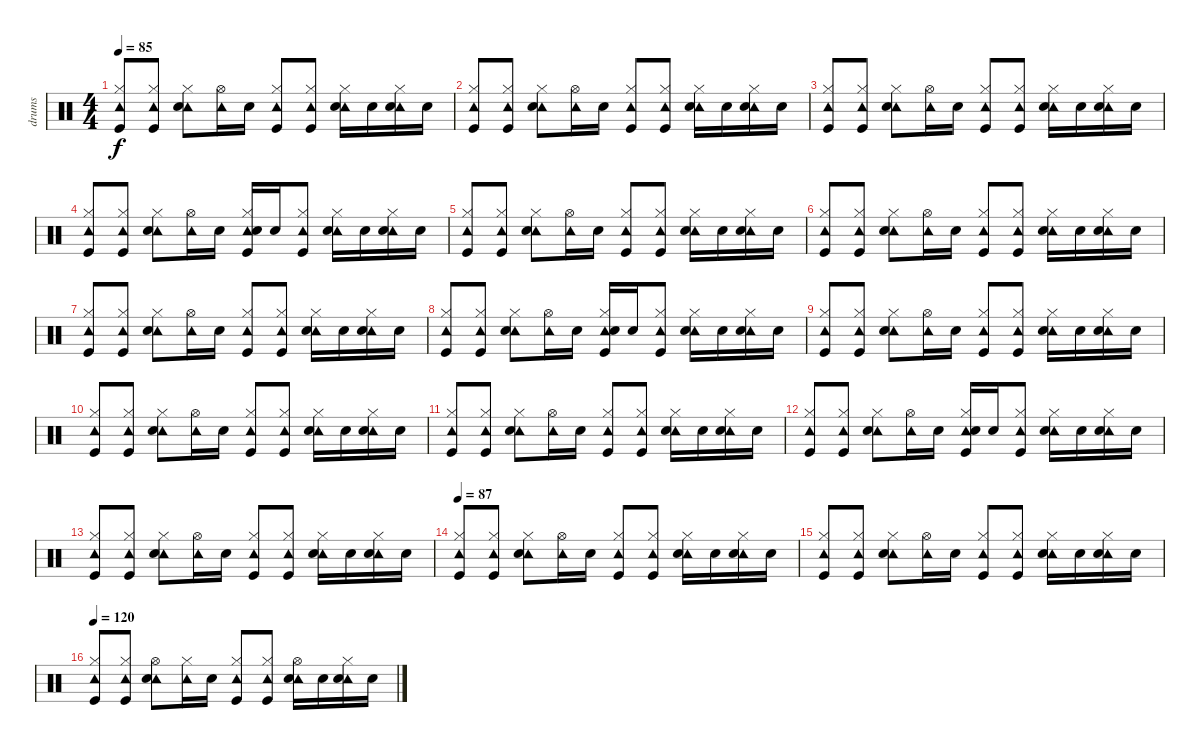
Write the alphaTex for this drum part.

\track ("drums" "drums") {instrument percussion}
\staff {score}
\articulation defaults
\ts (4 4)
\tempo 85
\clef neutral
\ks c
("Tambourine (hit)" "Hi-Hat (closed)" "Kick (hit)").8{dy f} ("Tambourine (hit)" "Hi-Hat (closed)" "Kick (hit)").8 ("Tambourine (hit)" "Hi-Hat (closed)" "Electric Snare (hit)").8 ("Tambourine (hit)" "Hi-Hat (open)").16 "Electric Snare (hit)".16 ("Tambourine (hit)" "Hi-Hat (closed)" "Kick (hit)").8 ("Tambourine (hit)" "Hi-Hat (closed)" "Kick (hit)").8 ("Tambourine (hit)" "Hi-Hat (closed)" "Electric Snare (hit)").16 "Electric Snare (hit)".16 ("Tambourine (hit)" "Hi-Hat (closed)" "Electric Snare (hit)").16 "Electric Snare (hit)".16 |
("Tambourine (hit)" "Hi-Hat (closed)" "Kick (hit)").8 ("Tambourine (hit)" "Hi-Hat (closed)" "Kick (hit)").8 ("Tambourine (hit)" "Hi-Hat (closed)" "Electric Snare (hit)").8 ("Tambourine (hit)" "Hi-Hat (open)").16 "Electric Snare (hit)".16 ("Tambourine (hit)" "Hi-Hat (closed)" "Kick (hit)").8 ("Tambourine (hit)" "Hi-Hat (closed)" "Kick (hit)").8 ("Tambourine (hit)" "Hi-Hat (closed)" "Electric Snare (hit)").16 "Electric Snare (hit)".16 ("Tambourine (hit)" "Hi-Hat (closed)" "Electric Snare (hit)").16 "Electric Snare (hit)".16 |
("Tambourine (hit)" "Hi-Hat (closed)" "Kick (hit)").8 ("Tambourine (hit)" "Hi-Hat (closed)" "Kick (hit)").8 ("Tambourine (hit)" "Hi-Hat (closed)" "Electric Snare (hit)").8 ("Tambourine (hit)" "Hi-Hat (open)").16 "Electric Snare (hit)".16 ("Tambourine (hit)" "Hi-Hat (closed)" "Kick (hit)").8 ("Tambourine (hit)" "Hi-Hat (closed)" "Kick (hit)").8 ("Tambourine (hit)" "Hi-Hat (closed)" "Electric Snare (hit)").16 "Electric Snare (hit)".16 ("Tambourine (hit)" "Hi-Hat (closed)" "Electric Snare (hit)").16 "Electric Snare (hit)".16 |
("Tambourine (hit)" "Hi-Hat (closed)" "Kick (hit)").8 ("Tambourine (hit)" "Hi-Hat (closed)" "Kick (hit)").8 ("Tambourine (hit)" "Hi-Hat (closed)" "Electric Snare (hit)").8 ("Tambourine (hit)" "Hi-Hat (open)").16 "Electric Snare (hit)".16 ("Tambourine (hit)" "Hi-Hat (closed)" "Electric Snare (hit)" "Kick (hit)").16 "Electric Snare (hit)".16 ("Tambourine (hit)" "Hi-Hat (closed)" "Kick (hit)").8 ("Tambourine (hit)" "Hi-Hat (closed)" "Electric Snare (hit)").16 "Electric Snare (hit)".16 ("Tambourine (hit)" "Hi-Hat (closed)" "Electric Snare (hit)").16 "Electric Snare (hit)".16 |
("Tambourine (hit)" "Hi-Hat (closed)" "Kick (hit)").8 ("Tambourine (hit)" "Hi-Hat (closed)" "Kick (hit)").8 ("Tambourine (hit)" "Hi-Hat (closed)" "Electric Snare (hit)").8 ("Tambourine (hit)" "Hi-Hat (open)").16 "Electric Snare (hit)".16 ("Tambourine (hit)" "Hi-Hat (closed)" "Kick (hit)").8 ("Tambourine (hit)" "Hi-Hat (closed)" "Kick (hit)").8 ("Tambourine (hit)" "Hi-Hat (closed)" "Electric Snare (hit)").16 "Electric Snare (hit)".16 ("Tambourine (hit)" "Hi-Hat (closed)" "Electric Snare (hit)").16 "Electric Snare (hit)".16 |
("Tambourine (hit)" "Hi-Hat (closed)" "Kick (hit)").8 ("Tambourine (hit)" "Hi-Hat (closed)" "Kick (hit)").8 ("Tambourine (hit)" "Hi-Hat (closed)" "Electric Snare (hit)").8 ("Tambourine (hit)" "Hi-Hat (open)").16 "Electric Snare (hit)".16 ("Tambourine (hit)" "Hi-Hat (closed)" "Kick (hit)").8 ("Tambourine (hit)" "Hi-Hat (closed)" "Kick (hit)").8 ("Tambourine (hit)" "Hi-Hat (closed)" "Electric Snare (hit)").16 "Electric Snare (hit)".16 ("Tambourine (hit)" "Hi-Hat (closed)" "Electric Snare (hit)").16 "Electric Snare (hit)".16 |
("Tambourine (hit)" "Hi-Hat (closed)" "Kick (hit)").8 ("Tambourine (hit)" "Hi-Hat (closed)" "Kick (hit)").8 ("Tambourine (hit)" "Hi-Hat (closed)" "Electric Snare (hit)").8 ("Tambourine (hit)" "Hi-Hat (open)").16 "Electric Snare (hit)".16 ("Tambourine (hit)" "Hi-Hat (closed)" "Kick (hit)").8 ("Tambourine (hit)" "Hi-Hat (closed)" "Kick (hit)").8 ("Tambourine (hit)" "Hi-Hat (closed)" "Electric Snare (hit)").16 "Electric Snare (hit)".16 ("Tambourine (hit)" "Hi-Hat (closed)" "Electric Snare (hit)").16 "Electric Snare (hit)".16 |
("Tambourine (hit)" "Hi-Hat (closed)" "Kick (hit)").8 ("Tambourine (hit)" "Hi-Hat (closed)" "Kick (hit)").8 ("Tambourine (hit)" "Hi-Hat (closed)" "Electric Snare (hit)").8 ("Tambourine (hit)" "Hi-Hat (open)").16 "Electric Snare (hit)".16 ("Tambourine (hit)" "Hi-Hat (closed)" "Electric Snare (hit)" "Kick (hit)").16 "Electric Snare (hit)".16 ("Tambourine (hit)" "Hi-Hat (closed)" "Kick (hit)").8 ("Tambourine (hit)" "Hi-Hat (closed)" "Electric Snare (hit)").16 "Electric Snare (hit)".16 ("Tambourine (hit)" "Hi-Hat (closed)" "Electric Snare (hit)").16 "Electric Snare (hit)".16 |
("Tambourine (hit)" "Hi-Hat (closed)" "Kick (hit)").8 ("Tambourine (hit)" "Hi-Hat (closed)" "Kick (hit)").8 ("Tambourine (hit)" "Hi-Hat (closed)" "Electric Snare (hit)").8 ("Tambourine (hit)" "Hi-Hat (open)").16 "Electric Snare (hit)".16 ("Tambourine (hit)" "Hi-Hat (closed)" "Kick (hit)").8 ("Tambourine (hit)" "Hi-Hat (closed)" "Kick (hit)").8 ("Tambourine (hit)" "Hi-Hat (closed)" "Electric Snare (hit)").16 "Electric Snare (hit)".16 ("Tambourine (hit)" "Hi-Hat (closed)" "Electric Snare (hit)").16 "Electric Snare (hit)".16 |
("Tambourine (hit)" "Hi-Hat (closed)" "Kick (hit)").8 ("Tambourine (hit)" "Hi-Hat (closed)" "Kick (hit)").8 ("Tambourine (hit)" "Hi-Hat (closed)" "Electric Snare (hit)").8 ("Tambourine (hit)" "Hi-Hat (open)").16 "Electric Snare (hit)".16 ("Tambourine (hit)" "Hi-Hat (closed)" "Kick (hit)").8 ("Tambourine (hit)" "Hi-Hat (closed)" "Kick (hit)").8 ("Tambourine (hit)" "Hi-Hat (closed)" "Electric Snare (hit)").16 "Electric Snare (hit)".16 ("Tambourine (hit)" "Hi-Hat (closed)" "Electric Snare (hit)").16 "Electric Snare (hit)".16 |
("Tambourine (hit)" "Hi-Hat (closed)" "Kick (hit)").8 ("Tambourine (hit)" "Hi-Hat (closed)" "Kick (hit)").8 ("Tambourine (hit)" "Hi-Hat (closed)" "Electric Snare (hit)").8 ("Tambourine (hit)" "Hi-Hat (open)").16 "Electric Snare (hit)".16 ("Tambourine (hit)" "Hi-Hat (closed)" "Kick (hit)").8 ("Tambourine (hit)" "Hi-Hat (closed)" "Kick (hit)").8 ("Tambourine (hit)" "Hi-Hat (closed)" "Electric Snare (hit)").16 "Electric Snare (hit)".16 ("Tambourine (hit)" "Hi-Hat (closed)" "Electric Snare (hit)").16 "Electric Snare (hit)".16 |
("Tambourine (hit)" "Hi-Hat (closed)" "Kick (hit)").8 ("Tambourine (hit)" "Hi-Hat (closed)" "Kick (hit)").8 ("Tambourine (hit)" "Hi-Hat (closed)" "Electric Snare (hit)").8 ("Tambourine (hit)" "Hi-Hat (open)").16 "Electric Snare (hit)".16 ("Tambourine (hit)" "Hi-Hat (closed)" "Electric Snare (hit)" "Kick (hit)").16 "Electric Snare (hit)".16 ("Tambourine (hit)" "Hi-Hat (closed)" "Kick (hit)").8 ("Tambourine (hit)" "Hi-Hat (closed)" "Electric Snare (hit)").16 "Electric Snare (hit)".16 ("Tambourine (hit)" "Hi-Hat (closed)" "Electric Snare (hit)").16 "Electric Snare (hit)".16 |
("Tambourine (hit)" "Hi-Hat (closed)" "Kick (hit)").8 ("Tambourine (hit)" "Hi-Hat (closed)" "Kick (hit)").8 ("Tambourine (hit)" "Hi-Hat (closed)" "Electric Snare (hit)").8 ("Tambourine (hit)" "Hi-Hat (open)").16 "Electric Snare (hit)".16 ("Tambourine (hit)" "Hi-Hat (closed)" "Kick (hit)").8 ("Tambourine (hit)" "Hi-Hat (closed)" "Kick (hit)").8 ("Tambourine (hit)" "Hi-Hat (closed)" "Electric Snare (hit)").16 "Electric Snare (hit)".16 ("Tambourine (hit)" "Hi-Hat (closed)" "Electric Snare (hit)").16 "Electric Snare (hit)".16 |
\tempo 87
("Tambourine (hit)" "Hi-Hat (closed)" "Kick (hit)").8 ("Tambourine (hit)" "Hi-Hat (closed)" "Kick (hit)").8 ("Tambourine (hit)" "Hi-Hat (closed)" "Electric Snare (hit)").8 ("Tambourine (hit)" "Hi-Hat (open)").16 "Electric Snare (hit)".16 ("Tambourine (hit)" "Hi-Hat (closed)" "Kick (hit)").8 ("Tambourine (hit)" "Hi-Hat (closed)" "Kick (hit)").8 ("Tambourine (hit)" "Hi-Hat (closed)" "Electric Snare (hit)").16 "Electric Snare (hit)".16 ("Tambourine (hit)" "Hi-Hat (closed)" "Electric Snare (hit)").16 "Electric Snare (hit)".16 |
("Tambourine (hit)" "Hi-Hat (closed)" "Kick (hit)").8 ("Tambourine (hit)" "Hi-Hat (closed)" "Kick (hit)").8 ("Tambourine (hit)" "Hi-Hat (closed)" "Electric Snare (hit)").8 ("Tambourine (hit)" "Hi-Hat (open)").16 "Electric Snare (hit)".16 ("Tambourine (hit)" "Hi-Hat (closed)" "Kick (hit)").8 ("Tambourine (hit)" "Hi-Hat (closed)" "Kick (hit)").8 ("Tambourine (hit)" "Hi-Hat (closed)" "Electric Snare (hit)").16 "Electric Snare (hit)".16 ("Tambourine (hit)" "Hi-Hat (closed)" "Electric Snare (hit)").16 "Electric Snare (hit)".16 |
\section ("" "")
\tempo 120
("Tambourine (hit)" "Hi-Hat (closed)" "Kick (hit)").8 ("Tambourine (hit)" "Hi-Hat (closed)" "Kick (hit)").8 ("Tambourine (hit)" "Hi-Hat (open)" "Electric Snare (hit)").8 ("Tambourine (hit)" "Hi-Hat (closed)").16 "Electric Snare (hit)".16 ("Tambourine (hit)" "Hi-Hat (closed)" "Kick (hit)").8 ("Tambourine (hit)" "Hi-Hat (closed)" "Kick (hit)").8 ("Tambourine (hit)" "Hi-Hat (open)" "Electric Snare (hit)").16 "Electric Snare (hit)".16 ("Tambourine (hit)" "Hi-Hat (closed)" "Electric Snare (hit)").16 "Electric Snare (hit)".16
